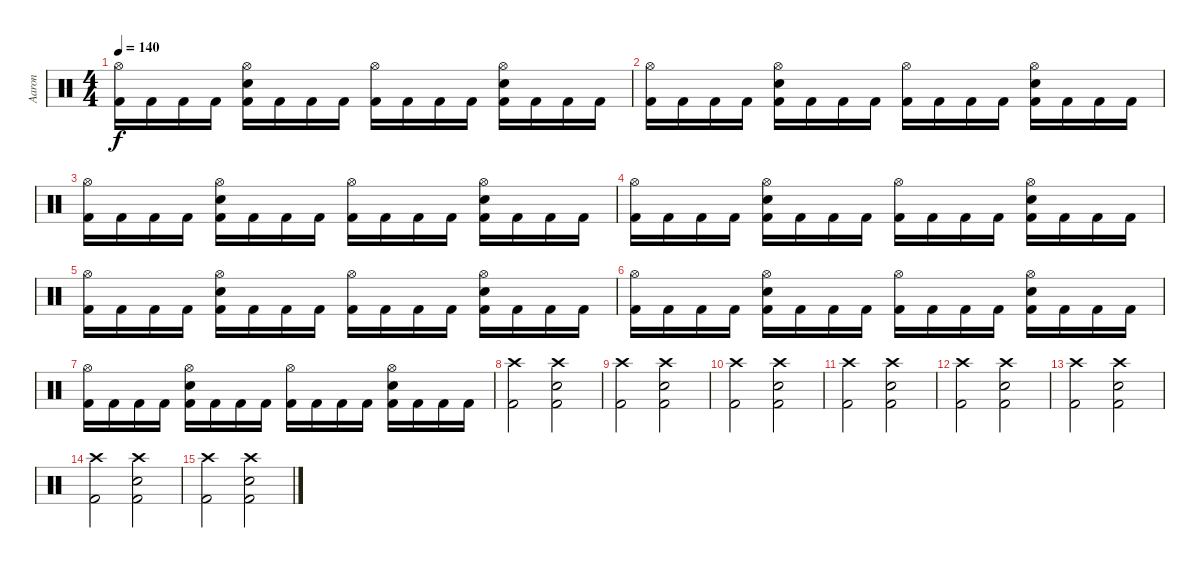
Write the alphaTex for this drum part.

\track ("Aaron" "Aaron") {instrument percussion}
\staff {score}
\articulation defaults
\ts (4 4)
\tempo 140
\clef neutral
\ks c
("Hi-Hat (open)" "Kick (hit) 2").16{dy f} "Kick (hit) 2".16 "Kick (hit) 2".16 "Kick (hit) 2".16 ("Hi-Hat (open)" "Snare (hit) 2" "Kick (hit) 2").16 "Kick (hit) 2".16 "Kick (hit) 2".16 "Kick (hit) 2".16 ("Hi-Hat (open)" "Kick (hit) 2").16 "Kick (hit) 2".16 "Kick (hit) 2".16 "Kick (hit) 2".16 ("Hi-Hat (open)" "Snare (hit) 2" "Kick (hit) 2").16 "Kick (hit) 2".16 "Kick (hit) 2".16 "Kick (hit) 2".16 |
("Hi-Hat (open)" "Kick (hit) 2").16 "Kick (hit) 2".16 "Kick (hit) 2".16 "Kick (hit) 2".16 ("Hi-Hat (open)" "Snare (hit) 2" "Kick (hit) 2").16 "Kick (hit) 2".16 "Kick (hit) 2".16 "Kick (hit) 2".16 ("Hi-Hat (open)" "Kick (hit) 2").16 "Kick (hit) 2".16 "Kick (hit) 2".16 "Kick (hit) 2".16 ("Hi-Hat (open)" "Snare (hit) 2" "Kick (hit) 2").16 "Kick (hit) 2".16 "Kick (hit) 2".16 "Kick (hit) 2".16 |
("Hi-Hat (open)" "Kick (hit) 2").16 "Kick (hit) 2".16 "Kick (hit) 2".16 "Kick (hit) 2".16 ("Hi-Hat (open)" "Snare (hit) 2" "Kick (hit) 2").16 "Kick (hit) 2".16 "Kick (hit) 2".16 "Kick (hit) 2".16 ("Hi-Hat (open)" "Kick (hit) 2").16 "Kick (hit) 2".16 "Kick (hit) 2".16 "Kick (hit) 2".16 ("Hi-Hat (open)" "Snare (hit) 2" "Kick (hit) 2").16 "Kick (hit) 2".16 "Kick (hit) 2".16 "Kick (hit) 2".16 |
("Hi-Hat (open)" "Kick (hit) 2").16 "Kick (hit) 2".16 "Kick (hit) 2".16 "Kick (hit) 2".16 ("Hi-Hat (open)" "Snare (hit) 2" "Kick (hit) 2").16 "Kick (hit) 2".16 "Kick (hit) 2".16 "Kick (hit) 2".16 ("Hi-Hat (open)" "Kick (hit) 2").16 "Kick (hit) 2".16 "Kick (hit) 2".16 "Kick (hit) 2".16 ("Hi-Hat (open)" "Snare (hit) 2" "Kick (hit) 2").16 "Kick (hit) 2".16 "Kick (hit) 2".16 "Kick (hit) 2".16 |
("Hi-Hat (open)" "Kick (hit) 2").16 "Kick (hit) 2".16 "Kick (hit) 2".16 "Kick (hit) 2".16 ("Hi-Hat (open)" "Snare (hit) 2" "Kick (hit) 2").16 "Kick (hit) 2".16 "Kick (hit) 2".16 "Kick (hit) 2".16 ("Hi-Hat (open)" "Kick (hit) 2").16 "Kick (hit) 2".16 "Kick (hit) 2".16 "Kick (hit) 2".16 ("Hi-Hat (open)" "Snare (hit) 2" "Kick (hit) 2").16 "Kick (hit) 2".16 "Kick (hit) 2".16 "Kick (hit) 2".16 |
("Hi-Hat (open)" "Kick (hit) 2").16 "Kick (hit) 2".16 "Kick (hit) 2".16 "Kick (hit) 2".16 ("Hi-Hat (open)" "Snare (hit) 2" "Kick (hit) 2").16 "Kick (hit) 2".16 "Kick (hit) 2".16 "Kick (hit) 2".16 ("Hi-Hat (open)" "Kick (hit) 2").16 "Kick (hit) 2".16 "Kick (hit) 2".16 "Kick (hit) 2".16 ("Hi-Hat (open)" "Snare (hit) 2" "Kick (hit) 2").16 "Kick (hit) 2".16 "Kick (hit) 2".16 "Kick (hit) 2".16 |
("Hi-Hat (open)" "Kick (hit) 2").16 "Kick (hit) 2".16 "Kick (hit) 2".16 "Kick (hit) 2".16 ("Hi-Hat (open)" "Snare (hit) 2" "Kick (hit) 2").16 "Kick (hit) 2".16 "Kick (hit) 2".16 "Kick (hit) 2".16 ("Hi-Hat (open)" "Kick (hit) 2").16 "Kick (hit) 2".16 "Kick (hit) 2".16 "Kick (hit) 2".16 ("Hi-Hat (open)" "Snare (hit) 2" "Kick (hit) 2").16 "Kick (hit) 2".16 "Kick (hit) 2".16 "Kick (hit) 2".16 |
("Kick (hit) 2" "Crash high (hit)").2 ("Kick (hit) 2" "Snare (hit) 2" "Crash high (hit)").2 |
("Kick (hit) 2" "Crash high (hit)").2 ("Kick (hit) 2" "Snare (hit) 2" "Crash high (hit)").2 |
("Kick (hit) 2" "Crash high (hit)").2 ("Kick (hit) 2" "Snare (hit) 2" "Crash high (hit)").2 |
("Kick (hit) 2" "Crash high (hit)").2 ("Kick (hit) 2" "Snare (hit) 2" "Crash high (hit)").2 |
("Kick (hit) 2" "Crash high (hit)").2 ("Kick (hit) 2" "Snare (hit) 2" "Crash high (hit)").2 |
("Kick (hit) 2" "Crash high (hit)").2 ("Kick (hit) 2" "Snare (hit) 2" "Crash high (hit)").2 |
("Kick (hit) 2" "Crash high (hit)").2 ("Kick (hit) 2" "Snare (hit) 2" "Crash high (hit)").2 |
("Kick (hit) 2" "Crash high (hit)").2 ("Kick (hit) 2" "Snare (hit) 2" "Crash high (hit)").2
